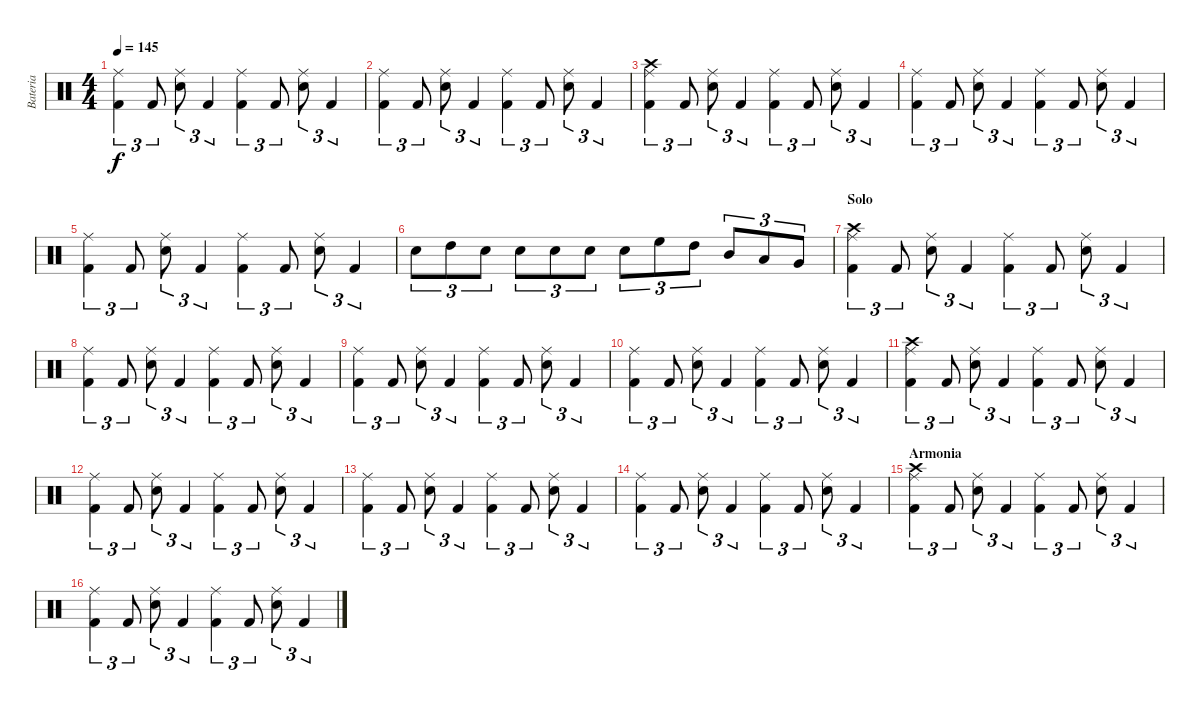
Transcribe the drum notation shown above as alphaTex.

\track ("Bateria" "Bateria") {instrument percussion}
\staff {score}
\articulation defaults
\ts (4 4)
\tempo 145
\clef neutral
\ks c
("Ride (middle)" "Kick (hit) 2").4{tu (3 2) dy f} "Kick (hit) 2".8{tu (3 2)} ("Ride (middle)" "Snare (hit) 2").8{tu (3 2)} "Kick (hit) 2".4{tu (3 2)} ("Ride (middle)" "Kick (hit) 2").4{tu (3 2)} "Kick (hit) 2".8{tu (3 2)} ("Ride (middle)" "Snare (hit) 2").8{tu (3 2)} "Kick (hit) 2".4{tu (3 2)} |
("Ride (middle)" "Kick (hit) 2").4{tu (3 2)} "Kick (hit) 2".8{tu (3 2)} ("Ride (middle)" "Snare (hit) 2").8{tu (3 2)} "Kick (hit) 2".4{tu (3 2)} ("Ride (middle)" "Kick (hit) 2").4{tu (3 2)} "Kick (hit) 2".8{tu (3 2)} ("Ride (middle)" "Snare (hit) 2").8{tu (3 2)} "Kick (hit) 2".4{tu (3 2)} |
("Ride (middle)" "Crash high (hit)" "Kick (hit) 2").4{tu (3 2)} "Kick (hit) 2".8{tu (3 2)} ("Ride (middle)" "Snare (hit) 2").8{tu (3 2)} "Kick (hit) 2".4{tu (3 2)} ("Ride (middle)" "Kick (hit) 2").4{tu (3 2)} "Kick (hit) 2".8{tu (3 2)} ("Ride (middle)" "Snare (hit) 2").8{tu (3 2)} "Kick (hit) 2".4{tu (3 2)} |
("Ride (middle)" "Kick (hit) 2").4{tu (3 2)} "Kick (hit) 2".8{tu (3 2)} ("Ride (middle)" "Snare (hit) 2").8{tu (3 2)} "Kick (hit) 2".4{tu (3 2)} ("Ride (middle)" "Kick (hit) 2").4{tu (3 2)} "Kick (hit) 2".8{tu (3 2)} ("Ride (middle)" "Snare (hit) 2").8{tu (3 2)} "Kick (hit) 2".4{tu (3 2)} |
("Ride (middle)" "Kick (hit) 2").4{tu (3 2)} "Kick (hit) 2".8{tu (3 2)} ("Ride (middle)" "Snare (hit) 2").8{tu (3 2)} "Kick (hit) 2".4{tu (3 2)} ("Ride (middle)" "Kick (hit) 2").4{tu (3 2)} "Kick (hit) 2".8{tu (3 2)} ("Ride (middle)" "Snare (hit) 2").8{tu (3 2)} "Kick (hit) 2".4{tu (3 2)} |
"Snare (hit) 2".8{tu (3 2)} "High Tom (hit)".8{tu (3 2)} "Snare (hit) 2".8{tu (3 2)} "Snare (hit) 2".8{tu (3 2)} "Snare (hit) 2".8{tu (3 2)} "Snare (hit) 2".8{tu (3 2)} "Snare (hit) 2".8{tu (3 2)} "High Floor Tom (hit)".8{tu (3 2)} "High Tom (hit)".8{tu (3 2)} "Mid Tom (hit)".8{tu (3 2)} "Low Tom (hit)".8{tu (3 2)} "Very Low Tom (hit)".8{tu (3 2)} |
\section ("" "Solo")
("Ride (middle)" "Crash high (hit)" "Kick (hit) 2").4{tu (3 2)} "Kick (hit) 2".8{tu (3 2)} ("Ride (middle)" "Snare (hit) 2").8{tu (3 2)} "Kick (hit) 2".4{tu (3 2)} ("Ride (middle)" "Kick (hit) 2").4{tu (3 2)} "Kick (hit) 2".8{tu (3 2)} ("Ride (middle)" "Snare (hit) 2").8{tu (3 2)} "Kick (hit) 2".4{tu (3 2)} |
("Ride (middle)" "Kick (hit) 2").4{tu (3 2)} "Kick (hit) 2".8{tu (3 2)} ("Ride (middle)" "Snare (hit) 2").8{tu (3 2)} "Kick (hit) 2".4{tu (3 2)} ("Ride (middle)" "Kick (hit) 2").4{tu (3 2)} "Kick (hit) 2".8{tu (3 2)} ("Ride (middle)" "Snare (hit) 2").8{tu (3 2)} "Kick (hit) 2".4{tu (3 2)} |
("Ride (middle)" "Kick (hit) 2").4{tu (3 2)} "Kick (hit) 2".8{tu (3 2)} ("Ride (middle)" "Snare (hit) 2").8{tu (3 2)} "Kick (hit) 2".4{tu (3 2)} ("Ride (middle)" "Kick (hit) 2").4{tu (3 2)} "Kick (hit) 2".8{tu (3 2)} ("Ride (middle)" "Snare (hit) 2").8{tu (3 2)} "Kick (hit) 2".4{tu (3 2)} |
("Ride (middle)" "Kick (hit) 2").4{tu (3 2)} "Kick (hit) 2".8{tu (3 2)} ("Ride (middle)" "Snare (hit) 2").8{tu (3 2)} "Kick (hit) 2".4{tu (3 2)} ("Ride (middle)" "Kick (hit) 2").4{tu (3 2)} "Kick (hit) 2".8{tu (3 2)} ("Ride (middle)" "Snare (hit) 2").8{tu (3 2)} "Kick (hit) 2".4{tu (3 2)} |
("Ride (middle)" "Crash high (hit)" "Kick (hit) 2").4{tu (3 2)} "Kick (hit) 2".8{tu (3 2)} ("Ride (middle)" "Snare (hit) 2").8{tu (3 2)} "Kick (hit) 2".4{tu (3 2)} ("Ride (middle)" "Kick (hit) 2").4{tu (3 2)} "Kick (hit) 2".8{tu (3 2)} ("Ride (middle)" "Snare (hit) 2").8{tu (3 2)} "Kick (hit) 2".4{tu (3 2)} |
("Ride (middle)" "Kick (hit) 2").4{tu (3 2)} "Kick (hit) 2".8{tu (3 2)} ("Ride (middle)" "Snare (hit) 2").8{tu (3 2)} "Kick (hit) 2".4{tu (3 2)} ("Ride (middle)" "Kick (hit) 2").4{tu (3 2)} "Kick (hit) 2".8{tu (3 2)} ("Ride (middle)" "Snare (hit) 2").8{tu (3 2)} "Kick (hit) 2".4{tu (3 2)} |
("Ride (middle)" "Kick (hit) 2").4{tu (3 2)} "Kick (hit) 2".8{tu (3 2)} ("Ride (middle)" "Snare (hit) 2").8{tu (3 2)} "Kick (hit) 2".4{tu (3 2)} ("Ride (middle)" "Kick (hit) 2").4{tu (3 2)} "Kick (hit) 2".8{tu (3 2)} ("Ride (middle)" "Snare (hit) 2").8{tu (3 2)} "Kick (hit) 2".4{tu (3 2)} |
("Ride (middle)" "Kick (hit) 2").4{tu (3 2)} "Kick (hit) 2".8{tu (3 2)} ("Ride (middle)" "Snare (hit) 2").8{tu (3 2)} "Kick (hit) 2".4{tu (3 2)} ("Ride (middle)" "Kick (hit) 2").4{tu (3 2)} "Kick (hit) 2".8{tu (3 2)} ("Ride (middle)" "Snare (hit) 2").8{tu (3 2)} "Kick (hit) 2".4{tu (3 2)} |
\section ("" "Armonia")
("Ride (middle)" "Crash high (hit)" "Kick (hit) 2").4{tu (3 2)} "Kick (hit) 2".8{tu (3 2)} ("Ride (middle)" "Snare (hit) 2").8{tu (3 2)} "Kick (hit) 2".4{tu (3 2)} ("Ride (middle)" "Kick (hit) 2").4{tu (3 2)} "Kick (hit) 2".8{tu (3 2)} ("Ride (middle)" "Snare (hit) 2").8{tu (3 2)} "Kick (hit) 2".4{tu (3 2)} |
("Ride (middle)" "Kick (hit) 2").4{tu (3 2)} "Kick (hit) 2".8{tu (3 2)} ("Ride (middle)" "Snare (hit) 2").8{tu (3 2)} "Kick (hit) 2".4{tu (3 2)} ("Ride (middle)" "Kick (hit) 2").4{tu (3 2)} "Kick (hit) 2".8{tu (3 2)} ("Ride (middle)" "Snare (hit) 2").8{tu (3 2)} "Kick (hit) 2".4{tu (3 2)}
